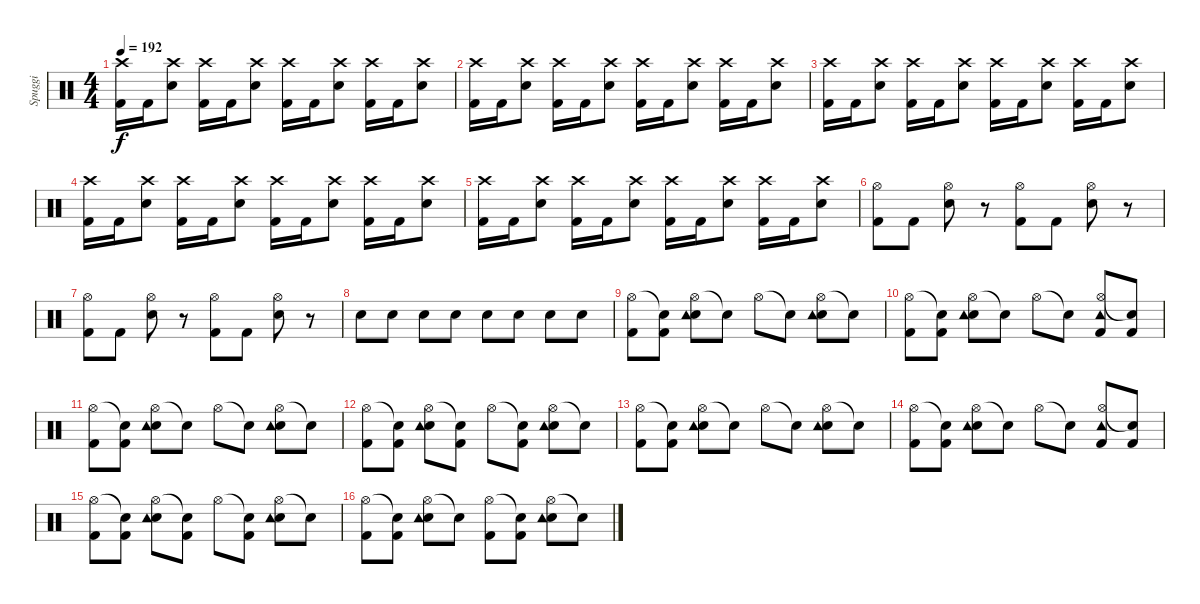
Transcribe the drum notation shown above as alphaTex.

\track ("Spuggi" "Spuggi") {instrument percussion}
\staff {score}
\articulation defaults
\ts (4 4)
\tempo 192
\clef neutral
\ks c
("Crash high (hit)" "Kick (hit) 2").16{dy f} "Kick (hit) 2".16 ("Crash high (hit)" "Snare (hit) 2").8 ("Crash high (hit)" "Kick (hit) 2").16 "Kick (hit) 2".16 ("Crash high (hit)" "Snare (hit) 2").8 ("Crash high (hit)" "Kick (hit) 2").16 "Kick (hit) 2".16 ("Crash high (hit)" "Snare (hit) 2").8 ("Crash high (hit)" "Kick (hit) 2").16 "Kick (hit) 2".16 ("Crash high (hit)" "Snare (hit) 2").8 |
("Crash high (hit)" "Kick (hit) 2").16 "Kick (hit) 2".16 ("Crash high (hit)" "Snare (hit) 2").8 ("Crash high (hit)" "Kick (hit) 2").16 "Kick (hit) 2".16 ("Crash high (hit)" "Snare (hit) 2").8 ("Crash high (hit)" "Kick (hit) 2").16 "Kick (hit) 2".16 ("Crash high (hit)" "Snare (hit) 2").8 ("Crash high (hit)" "Kick (hit) 2").16 "Kick (hit) 2".16 ("Crash high (hit)" "Snare (hit) 2").8 |
("Crash high (hit)" "Kick (hit) 2").16 "Kick (hit) 2".16 ("Crash high (hit)" "Snare (hit) 2").8 ("Crash high (hit)" "Kick (hit) 2").16 "Kick (hit) 2".16 ("Crash high (hit)" "Snare (hit) 2").8 ("Crash high (hit)" "Kick (hit) 2").16 "Kick (hit) 2".16 ("Crash high (hit)" "Snare (hit) 2").8 ("Crash high (hit)" "Kick (hit) 2").16 "Kick (hit) 2".16 ("Crash high (hit)" "Snare (hit) 2").8 |
("Crash high (hit)" "Kick (hit) 2").16 "Kick (hit) 2".16 ("Crash high (hit)" "Snare (hit) 2").8 ("Crash high (hit)" "Kick (hit) 2").16 "Kick (hit) 2".16 ("Crash high (hit)" "Snare (hit) 2").8 ("Crash high (hit)" "Kick (hit) 2").16 "Kick (hit) 2".16 ("Crash high (hit)" "Snare (hit) 2").8 ("Crash high (hit)" "Kick (hit) 2").16 "Kick (hit) 2".16 ("Crash high (hit)" "Snare (hit) 2").8 |
("Crash high (hit)" "Kick (hit) 2").16 "Kick (hit) 2".16 ("Crash high (hit)" "Snare (hit) 2").8 ("Crash high (hit)" "Kick (hit) 2").16 "Kick (hit) 2".16 ("Crash high (hit)" "Snare (hit) 2").8 ("Crash high (hit)" "Kick (hit) 2").16 "Kick (hit) 2".16 ("Crash high (hit)" "Snare (hit) 2").8 ("Crash high (hit)" "Kick (hit) 2").16 "Kick (hit) 2".16 ("Crash high (hit)" "Snare (hit) 2").8 |
("Hi-Hat (open)" "Kick (hit) 2").8 "Kick (hit) 2".8 ("Hi-Hat (open)" "Snare (hit) 2").8 r.8 ("Hi-Hat (open)" "Kick (hit) 2").8 "Kick (hit) 2".8 ("Hi-Hat (open)" "Snare (hit) 2").8 r.8 |
("Hi-Hat (open)" "Kick (hit) 2").8 "Kick (hit) 2".8 ("Hi-Hat (open)" "Snare (hit) 2").8 r.8 ("Hi-Hat (open)" "Kick (hit) 2").8 "Kick (hit) 2".8 ("Hi-Hat (open)" "Snare (hit) 2").8 r.8 |
"Snare (hit) 2".8 "Snare (hit) 2".8 "Snare (hit) 2".8 "Snare (hit) 2".8 "Snare (hit) 2".8 "Snare (hit) 2".8 "Snare (hit) 2".8 "Snare (hit) 2".8 |
("Hi-Hat (open)" "Kick (hit) 2").8 ("Snare (hit)"{t} "Kick (hit) 2").8 ("Hi-Hat (open)" "Electric Snare (hit)" "Tambourine (hit)").8 "Snare (hit)"{t}.8 "Hi-Hat (open)".8 "Snare (hit)"{t}.8 ("Hi-Hat (open)" "Electric Snare (hit)" "Tambourine (hit)").8 "Snare (hit)"{t}.8 |
("Hi-Hat (open)" "Kick (hit) 2").8 ("Snare (hit)"{t} "Kick (hit) 2").8 ("Hi-Hat (open)" "Electric Snare (hit)" "Tambourine (hit)").8 "Snare (hit)"{t}.8 "Hi-Hat (open)".8 "Snare (hit)"{t}.8 ("Hi-Hat (open)" "Kick (hit) 2" "Tambourine (hit)").8 ("Snare (hit)"{t} "Kick (hit) 2").8 |
("Hi-Hat (open)" "Kick (hit) 2").8 ("Snare (hit)"{t} "Kick (hit) 2").8 ("Hi-Hat (open)" "Electric Snare (hit)" "Tambourine (hit)").8 "Snare (hit)"{t}.8 "Hi-Hat (open)".8 "Snare (hit)"{t}.8 ("Hi-Hat (open)" "Electric Snare (hit)" "Tambourine (hit)").8 "Snare (hit)"{t}.8 |
("Hi-Hat (open)" "Kick (hit) 2").8 ("Snare (hit)"{t} "Kick (hit) 2").8 ("Hi-Hat (open)" "Electric Snare (hit)" "Tambourine (hit)").8 ("Snare (hit)"{t} "Kick (hit) 2").8 "Hi-Hat (open)".8 ("Snare (hit)"{t} "Kick (hit) 2").8 ("Hi-Hat (open)" "Electric Snare (hit)" "Tambourine (hit)").8 "Snare (hit)"{t}.8 |
("Hi-Hat (open)" "Kick (hit) 2").8 ("Snare (hit)"{t} "Kick (hit) 2").8 ("Hi-Hat (open)" "Electric Snare (hit)" "Tambourine (hit)").8 "Snare (hit)"{t}.8 "Hi-Hat (open)".8 "Snare (hit)"{t}.8 ("Hi-Hat (open)" "Electric Snare (hit)" "Tambourine (hit)").8 "Snare (hit)"{t}.8 |
("Hi-Hat (open)" "Kick (hit) 2").8 ("Snare (hit)"{t} "Kick (hit) 2").8 ("Hi-Hat (open)" "Electric Snare (hit)" "Tambourine (hit)").8 "Snare (hit)"{t}.8 "Hi-Hat (open)".8 "Snare (hit)"{t}.8 ("Hi-Hat (open)" "Kick (hit) 2" "Tambourine (hit)").8 ("Snare (hit)"{t} "Kick (hit) 2").8 |
("Hi-Hat (open)" "Kick (hit) 2").8 ("Snare (hit)"{t} "Kick (hit) 2").8 ("Hi-Hat (open)" "Electric Snare (hit)" "Tambourine (hit)").8 ("Snare (hit)"{t} "Kick (hit) 2").8 "Hi-Hat (open)".8 ("Snare (hit)"{t} "Kick (hit) 2").8 ("Hi-Hat (open)" "Electric Snare (hit)" "Tambourine (hit)").8 "Snare (hit)"{t}.8 |
("Hi-Hat (open)" "Kick (hit) 2").8 ("Snare (hit)"{t} "Kick (hit) 2").8 ("Hi-Hat (open)" "Electric Snare (hit)" "Tambourine (hit)").8 "Snare (hit)"{t}.8 ("Hi-Hat (open)" "Kick (hit) 2").8 ("Snare (hit)"{t} "Kick (hit) 2").8 ("Hi-Hat (open)" "Electric Snare (hit)" "Tambourine (hit)").8 "Snare (hit)"{t}.8
